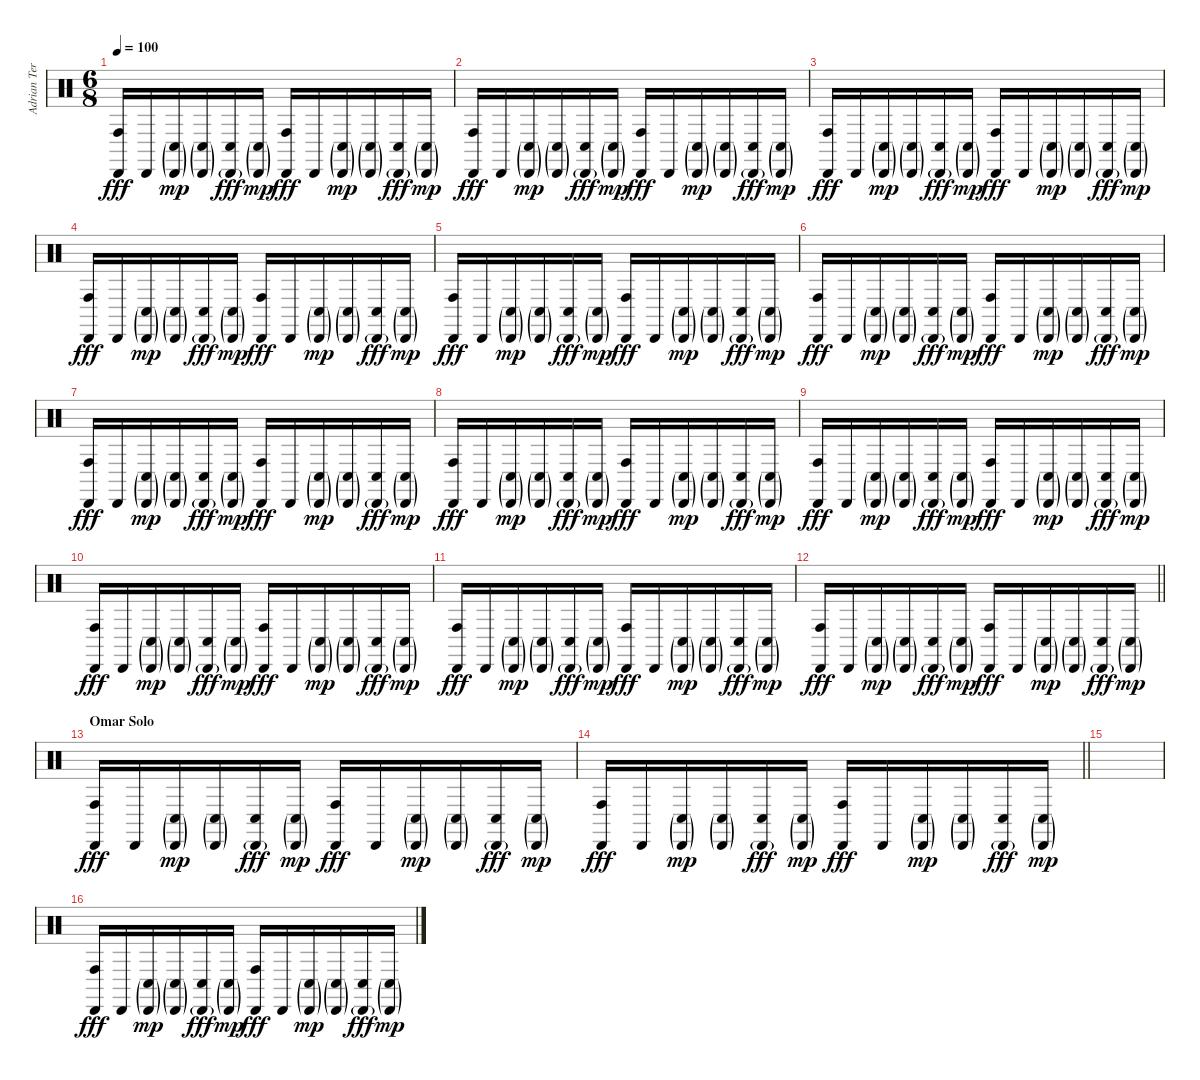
\track ("Adrian Terrazas" "Adrian Ter") {instrument percussion}
\staff {score}
\articulation defaults
\ts (6 8)
\tempo 100
\clef neutral
\ks c
("Cabasa (hit)" "Conga high (hit)").16{dy fff} "Cabasa (hit)".16 ("Cabasa (hit)"{g} "Conga low (hit)"{g}).16{dy mp} ("Cabasa (hit)"{g} "Conga low (hit)"{g}).16 ("Cabasa (hit)"{g} "Conga low (hit)").16{dy fff} ("Cabasa (hit)"{g} "Conga low (hit)"{g}).16{dy mp} ("Cabasa (hit)" "Conga high (hit)").16{dy fff} "Cabasa (hit)".16 ("Cabasa (hit)"{g} "Conga low (hit)"{g}).16{dy mp} ("Cabasa (hit)"{g} "Conga low (hit)"{g}).16 ("Cabasa (hit)"{g} "Conga low (hit)").16{dy fff} ("Cabasa (hit)"{g} "Conga low (hit)"{g}).16{dy mp} |
("Cabasa (hit)" "Conga high (hit)").16{dy fff} "Cabasa (hit)".16 ("Cabasa (hit)"{g} "Conga low (hit)"{g}).16{dy mp} ("Cabasa (hit)"{g} "Conga low (hit)"{g}).16 ("Cabasa (hit)"{g} "Conga low (hit)").16{dy fff} ("Cabasa (hit)"{g} "Conga low (hit)"{g}).16{dy mp} ("Cabasa (hit)" "Conga high (hit)").16{dy fff} "Cabasa (hit)".16 ("Cabasa (hit)"{g} "Conga low (hit)"{g}).16{dy mp} ("Cabasa (hit)"{g} "Conga low (hit)"{g}).16 ("Cabasa (hit)"{g} "Conga low (hit)").16{dy fff} ("Cabasa (hit)"{g} "Conga low (hit)"{g}).16{dy mp} |
("Cabasa (hit)" "Conga high (hit)").16{dy fff} "Cabasa (hit)".16 ("Cabasa (hit)"{g} "Conga low (hit)"{g}).16{dy mp} ("Cabasa (hit)"{g} "Conga low (hit)"{g}).16 ("Cabasa (hit)"{g} "Conga low (hit)").16{dy fff} ("Cabasa (hit)"{g} "Conga low (hit)"{g}).16{dy mp} ("Cabasa (hit)" "Conga high (hit)").16{dy fff} "Cabasa (hit)".16 ("Cabasa (hit)"{g} "Conga low (hit)"{g}).16{dy mp} ("Cabasa (hit)"{g} "Conga low (hit)"{g}).16 ("Cabasa (hit)"{g} "Conga low (hit)").16{dy fff} ("Cabasa (hit)"{g} "Conga low (hit)"{g}).16{dy mp} |
("Cabasa (hit)" "Conga high (hit)").16{dy fff} "Cabasa (hit)".16 ("Cabasa (hit)"{g} "Conga low (hit)"{g}).16{dy mp} ("Cabasa (hit)"{g} "Conga low (hit)"{g}).16 ("Cabasa (hit)"{g} "Conga low (hit)").16{dy fff} ("Cabasa (hit)"{g} "Conga low (hit)"{g}).16{dy mp} ("Cabasa (hit)" "Conga high (hit)").16{dy fff} "Cabasa (hit)".16 ("Cabasa (hit)"{g} "Conga low (hit)"{g}).16{dy mp} ("Cabasa (hit)"{g} "Conga low (hit)"{g}).16 ("Cabasa (hit)"{g} "Conga low (hit)").16{dy fff} ("Cabasa (hit)"{g} "Conga low (hit)"{g}).16{dy mp} |
("Cabasa (hit)" "Conga high (hit)").16{dy fff} "Cabasa (hit)".16 ("Cabasa (hit)"{g} "Conga low (hit)"{g}).16{dy mp} ("Cabasa (hit)"{g} "Conga low (hit)"{g}).16 ("Cabasa (hit)"{g} "Conga low (hit)").16{dy fff} ("Cabasa (hit)"{g} "Conga low (hit)"{g}).16{dy mp} ("Cabasa (hit)" "Conga high (hit)").16{dy fff} "Cabasa (hit)".16 ("Cabasa (hit)"{g} "Conga low (hit)"{g}).16{dy mp} ("Cabasa (hit)"{g} "Conga low (hit)"{g}).16 ("Cabasa (hit)"{g} "Conga low (hit)").16{dy fff} ("Cabasa (hit)"{g} "Conga low (hit)"{g}).16{dy mp} |
("Cabasa (hit)" "Conga high (hit)").16{dy fff} "Cabasa (hit)".16 ("Cabasa (hit)"{g} "Conga low (hit)"{g}).16{dy mp} ("Cabasa (hit)"{g} "Conga low (hit)"{g}).16 ("Cabasa (hit)"{g} "Conga low (hit)").16{dy fff} ("Cabasa (hit)"{g} "Conga low (hit)"{g}).16{dy mp} ("Cabasa (hit)" "Conga high (hit)").16{dy fff} "Cabasa (hit)".16 ("Cabasa (hit)"{g} "Conga low (hit)"{g}).16{dy mp} ("Cabasa (hit)"{g} "Conga low (hit)"{g}).16 ("Cabasa (hit)"{g} "Conga low (hit)").16{dy fff} ("Cabasa (hit)"{g} "Conga low (hit)"{g}).16{dy mp} |
("Cabasa (hit)" "Conga high (hit)").16{dy fff} "Cabasa (hit)".16 ("Cabasa (hit)"{g} "Conga low (hit)"{g}).16{dy mp} ("Cabasa (hit)"{g} "Conga low (hit)"{g}).16 ("Cabasa (hit)"{g} "Conga low (hit)").16{dy fff} ("Cabasa (hit)"{g} "Conga low (hit)"{g}).16{dy mp} ("Cabasa (hit)" "Conga high (hit)").16{dy fff} "Cabasa (hit)".16 ("Cabasa (hit)"{g} "Conga low (hit)"{g}).16{dy mp} ("Cabasa (hit)"{g} "Conga low (hit)"{g}).16 ("Cabasa (hit)"{g} "Conga low (hit)").16{dy fff} ("Cabasa (hit)"{g} "Conga low (hit)"{g}).16{dy mp} |
("Cabasa (hit)" "Conga high (hit)").16{dy fff} "Cabasa (hit)".16 ("Cabasa (hit)"{g} "Conga low (hit)"{g}).16{dy mp} ("Cabasa (hit)"{g} "Conga low (hit)"{g}).16 ("Cabasa (hit)"{g} "Conga low (hit)").16{dy fff} ("Cabasa (hit)"{g} "Conga low (hit)"{g}).16{dy mp} ("Cabasa (hit)" "Conga high (hit)").16{dy fff} "Cabasa (hit)".16 ("Cabasa (hit)"{g} "Conga low (hit)"{g}).16{dy mp} ("Cabasa (hit)"{g} "Conga low (hit)"{g}).16 ("Cabasa (hit)"{g} "Conga low (hit)").16{dy fff} ("Cabasa (hit)"{g} "Conga low (hit)"{g}).16{dy mp} |
("Cabasa (hit)" "Conga high (hit)").16{dy fff} "Cabasa (hit)".16 ("Cabasa (hit)"{g} "Conga low (hit)"{g}).16{dy mp} ("Cabasa (hit)"{g} "Conga low (hit)"{g}).16 ("Cabasa (hit)"{g} "Conga low (hit)").16{dy fff} ("Cabasa (hit)"{g} "Conga low (hit)"{g}).16{dy mp} ("Cabasa (hit)" "Conga high (hit)").16{dy fff} "Cabasa (hit)".16 ("Cabasa (hit)"{g} "Conga low (hit)"{g}).16{dy mp} ("Cabasa (hit)"{g} "Conga low (hit)"{g}).16 ("Cabasa (hit)"{g} "Conga low (hit)").16{dy fff} ("Cabasa (hit)"{g} "Conga low (hit)"{g}).16{dy mp} |
("Cabasa (hit)" "Conga high (hit)").16{dy fff} "Cabasa (hit)".16 ("Cabasa (hit)"{g} "Conga low (hit)"{g}).16{dy mp} ("Cabasa (hit)"{g} "Conga low (hit)"{g}).16 ("Cabasa (hit)"{g} "Conga low (hit)").16{dy fff} ("Cabasa (hit)"{g} "Conga low (hit)"{g}).16{dy mp} ("Cabasa (hit)" "Conga high (hit)").16{dy fff} "Cabasa (hit)".16 ("Cabasa (hit)"{g} "Conga low (hit)"{g}).16{dy mp} ("Cabasa (hit)"{g} "Conga low (hit)"{g}).16 ("Cabasa (hit)"{g} "Conga low (hit)").16{dy fff} ("Cabasa (hit)"{g} "Conga low (hit)"{g}).16{dy mp} |
("Cabasa (hit)" "Conga high (hit)").16{dy fff} "Cabasa (hit)".16 ("Cabasa (hit)"{g} "Conga low (hit)"{g}).16{dy mp} ("Cabasa (hit)"{g} "Conga low (hit)"{g}).16 ("Cabasa (hit)"{g} "Conga low (hit)").16{dy fff} ("Cabasa (hit)"{g} "Conga low (hit)"{g}).16{dy mp} ("Cabasa (hit)" "Conga high (hit)").16{dy fff} "Cabasa (hit)".16 ("Cabasa (hit)"{g} "Conga low (hit)"{g}).16{dy mp} ("Cabasa (hit)"{g} "Conga low (hit)"{g}).16 ("Cabasa (hit)"{g} "Conga low (hit)").16{dy fff} ("Cabasa (hit)"{g} "Conga low (hit)"{g}).16{dy mp} |
\barLineRight lightlight
("Cabasa (hit)" "Conga high (hit)").16{dy fff} "Cabasa (hit)".16 ("Cabasa (hit)"{g} "Conga low (hit)"{g}).16{dy mp} ("Cabasa (hit)"{g} "Conga low (hit)"{g}).16 ("Cabasa (hit)"{g} "Conga low (hit)").16{dy fff} ("Cabasa (hit)"{g} "Conga low (hit)"{g}).16{dy mp} ("Cabasa (hit)" "Conga high (hit)").16{dy fff} "Cabasa (hit)".16 ("Cabasa (hit)"{g} "Conga low (hit)"{g}).16{dy mp} ("Cabasa (hit)"{g} "Conga low (hit)"{g}).16 ("Cabasa (hit)"{g} "Conga low (hit)").16{dy fff} ("Cabasa (hit)"{g} "Conga low (hit)"{g}).16{dy mp} |
\section ("" "Omar Solo")
("Cabasa (hit)" "Conga high (hit)").16{dy fff} "Cabasa (hit)".16 ("Cabasa (hit)"{g} "Conga low (hit)"{g}).16{dy mp} ("Cabasa (hit)"{g} "Conga low (hit)"{g}).16 ("Cabasa (hit)"{g} "Conga low (hit)").16{dy fff} ("Cabasa (hit)"{g} "Conga low (hit)"{g}).16{dy mp} ("Cabasa (hit)" "Conga high (hit)").16{dy fff} "Cabasa (hit)".16 ("Cabasa (hit)"{g} "Conga low (hit)"{g}).16{dy mp} ("Cabasa (hit)"{g} "Conga low (hit)"{g}).16 ("Cabasa (hit)"{g} "Conga low (hit)").16{dy fff} ("Cabasa (hit)"{g} "Conga low (hit)"{g}).16{dy mp} |
\barLineRight lightlight
("Cabasa (hit)" "Conga high (hit)").16{dy fff} "Cabasa (hit)".16 ("Cabasa (hit)"{g} "Conga low (hit)"{g}).16{dy mp} ("Cabasa (hit)"{g} "Conga low (hit)"{g}).16 ("Cabasa (hit)"{g} "Conga low (hit)").16{dy fff} ("Cabasa (hit)"{g} "Conga low (hit)"{g}).16{dy mp} ("Cabasa (hit)" "Conga high (hit)").16{dy fff} "Cabasa (hit)".16 ("Cabasa (hit)"{g} "Conga low (hit)"{g}).16{dy mp} ("Cabasa (hit)"{g} "Conga low (hit)"{g}).16 ("Cabasa (hit)"{g} "Conga low (hit)").16{dy fff} ("Cabasa (hit)"{g} "Conga low (hit)"{g}).16{dy mp} |
|
("Cabasa (hit)" "Conga high (hit)").16{dy fff} "Cabasa (hit)".16 ("Cabasa (hit)"{g} "Conga low (hit)"{g}).16{dy mp} ("Cabasa (hit)"{g} "Conga low (hit)"{g}).16 ("Cabasa (hit)"{g} "Conga low (hit)").16{dy fff} ("Cabasa (hit)"{g} "Conga low (hit)"{g}).16{dy mp} ("Cabasa (hit)" "Conga high (hit)").16{dy fff} "Cabasa (hit)".16 ("Cabasa (hit)"{g} "Conga low (hit)"{g}).16{dy mp} ("Cabasa (hit)"{g} "Conga low (hit)"{g}).16 ("Cabasa (hit)"{g} "Conga low (hit)").16{dy fff} ("Cabasa (hit)"{g} "Conga low (hit)"{g}).16{dy mp}
